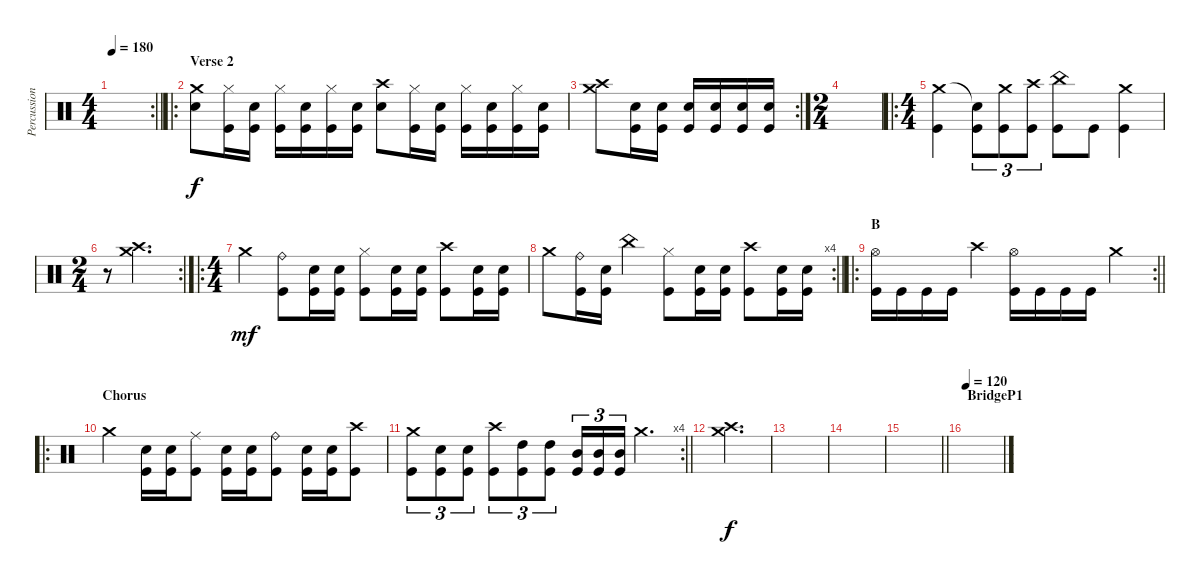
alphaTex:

\track ("Percussion" "Percussion") {instrument percussion}
\staff {score}
\articulation defaults
\rc 2
\ts (4 4)
\tempo 180
\clef neutral
\barLineRight lightlight
\ks c
|
\ro
\section ("" "Verse 2")
("Electric Snare (hit)" "Crash medium (hit)").8 ("Hi-Hat (closed)" "Kick (hit)").16 ("Electric Snare (hit)" "Kick (hit)").16 ("Hi-Hat (closed)" "Kick (hit)").16 ("Electric Snare (hit)" "Kick (hit)").16 ("Hi-Hat (closed)" "Kick (hit)").16 ("Electric Snare (hit)" "Kick (hit)").16 ("Electric Snare (hit)" "Crash high (hit)").8 ("Hi-Hat (closed)" "Kick (hit)").16 ("Electric Snare (hit)" "Kick (hit)").16 ("Hi-Hat (closed)" "Kick (hit)").16 ("Electric Snare (hit)" "Kick (hit)").16 ("Hi-Hat (closed)" "Kick (hit)").16 ("Electric Snare (hit)" "Kick (hit)").16 |
\rc 2
("Crash high (hit)" "Crash medium (hit)").8 ("Kick (hit)" "Electric Snare (hit)").16 ("Kick (hit)" "Electric Snare (hit)").16 ("Kick (hit)" "Electric Snare (hit)").16 ("Kick (hit)" "Electric Snare (hit)").16 ("Kick (hit)" "Electric Snare (hit)").16 ("Kick (hit)" "Electric Snare (hit)").16 |
\ts (2 4)
|
\ro
\ts (4 4)
("Crash medium (hit)" "Kick (hit)").4 ("Snare (hit)"{t} "Kick (hit)").8{tu (3 2)} ("Crash medium (hit)" "Kick (hit)").8{tu (3 2)} ("Crash high (hit)" "Kick (hit)").8{tu (3 2)} ("China (hit)" "Kick (hit)").8 "Kick (hit)".8 ("Crash medium (hit)" "Kick (hit)").4 |
\rc 2
\ts (2 4)
r.8 ("Crash medium (hit)" "Crash high (hit)").4{d} |
\ro
\ts (4 4)
"Crash medium (hit)".4{dy mf} ("Ride (bell)" "Kick (hit)").8 ("Electric Snare (hit)" "Kick (hit)").16 ("Electric Snare (hit)" "Kick (hit)").16 ("Hi-Hat (closed)" "Kick (hit)").8 ("Electric Snare (hit)" "Kick (hit)").16 ("Electric Snare (hit)" "Kick (hit)").16 ("Crash high (hit)" "Kick (hit)").8 ("Electric Snare (hit)" "Kick (hit)").16 ("Electric Snare (hit)" "Kick (hit)").16 |
\rc 4
\barLineRight lightlight "Crash medium (hit)".8
("Ride (bell)" "Kick (hit)").16 ("Electric Snare (hit)" "Kick (hit)").16 "China (hit)".4 ("Hi-Hat (closed)" "Kick (hit)").8 ("Electric Snare (hit)" "Kick (hit)").16 ("Electric Snare (hit)" "Kick (hit)").16 ("Crash high (hit)" "Kick (hit)").8 ("Electric Snare (hit)" "Kick (hit)").16 ("Electric Snare (hit)" "Kick (hit)").16 |
\ro
\rc 2
\section ("" "B")
\barLineRight lightlight
("Hi-Hat (open)" "Kick (hit)").16 "Kick (hit)".16 "Kick (hit)".16 "Kick (hit)".16 "Crash high (hit)".4 ("Hi-Hat (open)" "Kick (hit)").16 "Kick (hit)".16 "Kick (hit)".16 "Kick (hit)".16 "Crash medium (hit)".4 |
\ro
\section ("" "Chorus")
"Crash medium (hit)".4 ("Kick (hit)" "Electric Snare (hit)").16 ("Kick (hit)" "Electric Snare (hit)").16 ("Ride (middle)" "Kick (hit)").8 ("Kick (hit)" "Electric Snare (hit)").16 ("Kick (hit)" "Electric Snare (hit)").16 ("Ride (bell)" "Kick (hit)").8 ("Kick (hit)" "Electric Snare (hit)").16 ("Kick (hit)" "Electric Snare (hit)").16 ("Crash high (hit)" "Kick (hit)").8 |
\rc 4
\barLineRight lightlight
("Crash medium (hit)" "Kick (hit)").8{tu (3 2)} ("Electric Snare (hit)" "Kick (hit)").8{tu (3 2)} ("Electric Snare (hit)" "Kick (hit)").8{tu (3 2)} ("Crash high (hit)" "Kick (hit)").8{tu (3 2)} ("High Tom (hit)" "Kick (hit)").8{tu (3 2)} ("High Tom (hit)" "Kick (hit)").8{tu (3 2)} ("Mid Tom (hit)" "Kick (hit)").16{tu (3 2)} ("Mid Tom (hit)" "Kick (hit)").16{tu (3 2)} ("Mid Tom (hit)" "Kick (hit)").16{tu (3 2)} "Crash medium (hit)".4{d} |
\section ("" "")
("Crash high (hit)" "Crash medium (hit)").4{d dy f} |
|
|
\barLineRight lightlight
|
\section ("" "BridgeP1")
\tempo 120
